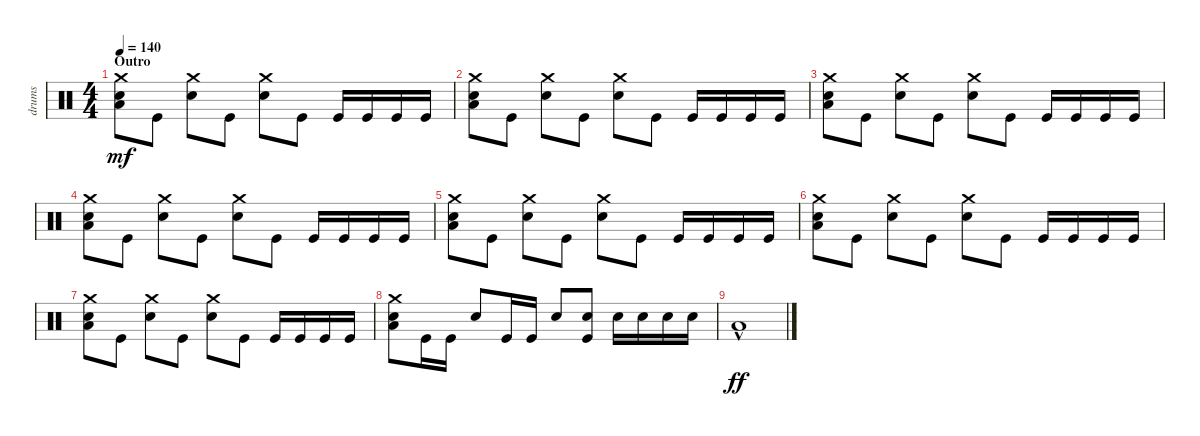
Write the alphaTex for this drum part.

\track ("drums" "drums") {instrument percussion}
\staff {score}
\articulation defaults
\ts (4 4)
\section ("" "Outro")
\tempo 140
\clef neutral
\ks c
("Crash medium (hit)" "Snare (hit) 2" "Low Floor Tom (hit)").8{dy mf} "Kick (hit)".8 ("Crash medium (hit)" "Snare (hit) 2").8 "Kick (hit)".8 ("Crash medium (hit)" "Snare (hit) 2").8 "Kick (hit)".8 "Kick (hit)".16 "Kick (hit)".16 "Kick (hit)".16 "Kick (hit)".16 |
("Crash medium (hit)" "Snare (hit) 2" "Low Floor Tom (hit)").8 "Kick (hit)".8 ("Crash medium (hit)" "Snare (hit) 2").8 "Kick (hit)".8 ("Crash medium (hit)" "Snare (hit) 2").8 "Kick (hit)".8 "Kick (hit)".16 "Kick (hit)".16 "Kick (hit)".16 "Kick (hit)".16 |
("Crash medium (hit)" "Snare (hit) 2" "Low Floor Tom (hit)").8 "Kick (hit)".8 ("Crash medium (hit)" "Snare (hit) 2").8 "Kick (hit)".8 ("Crash medium (hit)" "Snare (hit) 2").8 "Kick (hit)".8 "Kick (hit)".16 "Kick (hit)".16 "Kick (hit)".16 "Kick (hit)".16 |
("Crash medium (hit)" "Snare (hit) 2" "Low Floor Tom (hit)").8 "Kick (hit)".8 ("Crash medium (hit)" "Snare (hit) 2").8 "Kick (hit)".8 ("Crash medium (hit)" "Snare (hit) 2").8 "Kick (hit)".8 "Kick (hit)".16 "Kick (hit)".16 "Kick (hit)".16 "Kick (hit)".16 |
("Crash medium (hit)" "Snare (hit) 2" "Low Floor Tom (hit)").8 "Kick (hit)".8 ("Crash medium (hit)" "Snare (hit) 2").8 "Kick (hit)".8 ("Crash medium (hit)" "Snare (hit) 2").8 "Kick (hit)".8 "Kick (hit)".16 "Kick (hit)".16 "Kick (hit)".16 "Kick (hit)".16 |
("Crash medium (hit)" "Snare (hit) 2" "Low Floor Tom (hit)").8 "Kick (hit)".8 ("Crash medium (hit)" "Snare (hit) 2").8 "Kick (hit)".8 ("Crash medium (hit)" "Snare (hit) 2").8 "Kick (hit)".8 "Kick (hit)".16 "Kick (hit)".16 "Kick (hit)".16 "Kick (hit)".16 |
("Crash medium (hit)" "Snare (hit) 2" "Low Floor Tom (hit)").8 "Kick (hit)".8 ("Crash medium (hit)" "Snare (hit) 2").8 "Kick (hit)".8 ("Crash medium (hit)" "Snare (hit) 2").8 "Kick (hit)".8 "Kick (hit)".16 "Kick (hit)".16 "Kick (hit)".16 "Kick (hit)".16 |
("Crash medium (hit)" "Snare (hit) 2" "Low Floor Tom (hit)").8 "Kick (hit)".16 "Kick (hit)".16 "Snare (hit) 2".8 "Kick (hit)".16 "Kick (hit)".16 "Snare (hit) 2".8 ("Snare (hit) 2" "Kick (hit)").8 "Snare (hit) 2".16 "Snare (hit) 2".16 "Snare (hit) 2".16 "Snare (hit) 2".16 |
"Low Floor Tom (hit)"{hac}.1{dy ff}
